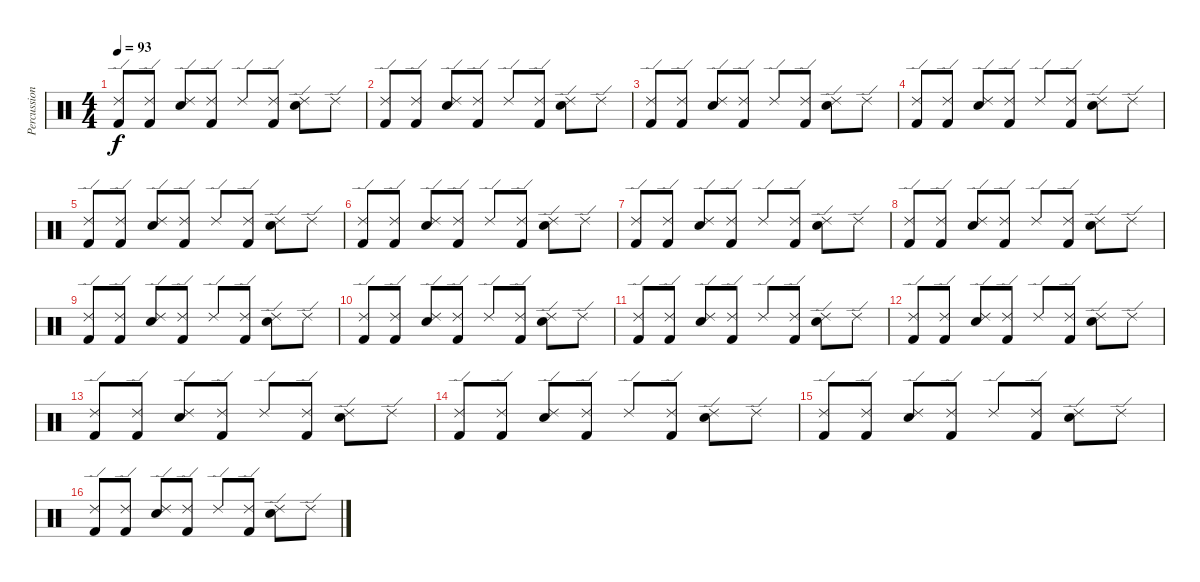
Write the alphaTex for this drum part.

\track ("Percussion" "Percussion") {instrument percussion}
\staff {score}
\articulation defaults
\ts (4 4)
\tempo 93
\clef neutral
\ks c
("Ride (edge) 2" "Kick (hit) 2").8{dy f} ("Ride (edge) 2" "Kick (hit) 2").8 ("Ride (edge) 2" "Electric Snare (hit)").8 ("Ride (edge) 2" "Kick (hit) 2").8 "Ride (edge) 2".8 ("Ride (edge) 2" "Kick (hit) 2").8 ("Ride (edge) 2" "Electric Snare (hit)").8 "Ride (edge) 2".8 |
("Ride (edge) 2" "Kick (hit) 2").8 ("Ride (edge) 2" "Kick (hit) 2").8 ("Ride (edge) 2" "Electric Snare (hit)").8 ("Ride (edge) 2" "Kick (hit) 2").8 "Ride (edge) 2".8 ("Ride (edge) 2" "Kick (hit) 2").8 ("Ride (edge) 2" "Electric Snare (hit)").8 "Ride (edge) 2".8 |
("Ride (edge) 2" "Kick (hit) 2").8 ("Ride (edge) 2" "Kick (hit) 2").8 ("Ride (edge) 2" "Electric Snare (hit)").8 ("Ride (edge) 2" "Kick (hit) 2").8 "Ride (edge) 2".8 ("Ride (edge) 2" "Kick (hit) 2").8 ("Ride (edge) 2" "Electric Snare (hit)").8 "Ride (edge) 2".8 |
("Ride (edge) 2" "Kick (hit) 2").8 ("Ride (edge) 2" "Kick (hit) 2").8 ("Ride (edge) 2" "Electric Snare (hit)").8 ("Ride (edge) 2" "Kick (hit) 2").8 "Ride (edge) 2".8 ("Ride (edge) 2" "Kick (hit) 2").8 ("Ride (edge) 2" "Electric Snare (hit)").8 "Ride (edge) 2".8 |
("Ride (edge) 2" "Kick (hit) 2").8 ("Ride (edge) 2" "Kick (hit) 2").8 ("Ride (edge) 2" "Electric Snare (hit)").8 ("Ride (edge) 2" "Kick (hit) 2").8 "Ride (edge) 2".8 ("Ride (edge) 2" "Kick (hit) 2").8 ("Ride (edge) 2" "Electric Snare (hit)").8 "Ride (edge) 2".8 |
("Ride (edge) 2" "Kick (hit) 2").8 ("Ride (edge) 2" "Kick (hit) 2").8 ("Ride (edge) 2" "Electric Snare (hit)").8 ("Ride (edge) 2" "Kick (hit) 2").8 "Ride (edge) 2".8 ("Ride (edge) 2" "Kick (hit) 2").8 ("Ride (edge) 2" "Electric Snare (hit)").8 "Ride (edge) 2".8 |
("Ride (edge) 2" "Kick (hit) 2").8 ("Ride (edge) 2" "Kick (hit) 2").8 ("Ride (edge) 2" "Electric Snare (hit)").8 ("Ride (edge) 2" "Kick (hit) 2").8 "Ride (edge) 2".8 ("Ride (edge) 2" "Kick (hit) 2").8 ("Ride (edge) 2" "Electric Snare (hit)").8 "Ride (edge) 2".8 |
("Ride (edge) 2" "Kick (hit) 2").8 ("Ride (edge) 2" "Kick (hit) 2").8 ("Ride (edge) 2" "Electric Snare (hit)").8 ("Ride (edge) 2" "Kick (hit) 2").8 "Ride (edge) 2".8 ("Ride (edge) 2" "Kick (hit) 2").8 ("Ride (edge) 2" "Electric Snare (hit)").8 "Ride (edge) 2".8 |
("Ride (edge) 2" "Kick (hit) 2").8 ("Ride (edge) 2" "Kick (hit) 2").8 ("Ride (edge) 2" "Electric Snare (hit)").8 ("Ride (edge) 2" "Kick (hit) 2").8 "Ride (edge) 2".8 ("Ride (edge) 2" "Kick (hit) 2").8 ("Ride (edge) 2" "Electric Snare (hit)").8 "Ride (edge) 2".8 |
("Ride (edge) 2" "Kick (hit) 2").8 ("Ride (edge) 2" "Kick (hit) 2").8 ("Ride (edge) 2" "Electric Snare (hit)").8 ("Ride (edge) 2" "Kick (hit) 2").8 "Ride (edge) 2".8 ("Ride (edge) 2" "Kick (hit) 2").8 ("Ride (edge) 2" "Electric Snare (hit)").8 "Ride (edge) 2".8 |
("Ride (edge) 2" "Kick (hit) 2").8 ("Ride (edge) 2" "Kick (hit) 2").8 ("Ride (edge) 2" "Electric Snare (hit)").8 ("Ride (edge) 2" "Kick (hit) 2").8 "Ride (edge) 2".8 ("Ride (edge) 2" "Kick (hit) 2").8 ("Ride (edge) 2" "Electric Snare (hit)").8 "Ride (edge) 2".8 |
("Ride (edge) 2" "Kick (hit) 2").8 ("Ride (edge) 2" "Kick (hit) 2").8 ("Ride (edge) 2" "Electric Snare (hit)").8 ("Ride (edge) 2" "Kick (hit) 2").8 "Ride (edge) 2".8 ("Ride (edge) 2" "Kick (hit) 2").8 ("Ride (edge) 2" "Electric Snare (hit)").8 "Ride (edge) 2".8 |
("Ride (edge) 2" "Kick (hit) 2").8 ("Ride (edge) 2" "Kick (hit) 2").8 ("Ride (edge) 2" "Electric Snare (hit)").8 ("Ride (edge) 2" "Kick (hit) 2").8 "Ride (edge) 2".8 ("Ride (edge) 2" "Kick (hit) 2").8 ("Ride (edge) 2" "Electric Snare (hit)").8 "Ride (edge) 2".8 |
("Ride (edge) 2" "Kick (hit) 2").8 ("Ride (edge) 2" "Kick (hit) 2").8 ("Ride (edge) 2" "Electric Snare (hit)").8 ("Ride (edge) 2" "Kick (hit) 2").8 "Ride (edge) 2".8 ("Ride (edge) 2" "Kick (hit) 2").8 ("Ride (edge) 2" "Electric Snare (hit)").8 "Ride (edge) 2".8 |
("Ride (edge) 2" "Kick (hit) 2").8 ("Ride (edge) 2" "Kick (hit) 2").8 ("Ride (edge) 2" "Electric Snare (hit)").8 ("Ride (edge) 2" "Kick (hit) 2").8 "Ride (edge) 2".8 ("Ride (edge) 2" "Kick (hit) 2").8 ("Ride (edge) 2" "Electric Snare (hit)").8 "Ride (edge) 2".8 |
("Ride (edge) 2" "Kick (hit) 2").8 ("Ride (edge) 2" "Kick (hit) 2").8 ("Ride (edge) 2" "Electric Snare (hit)").8 ("Ride (edge) 2" "Kick (hit) 2").8 "Ride (edge) 2".8 ("Ride (edge) 2" "Kick (hit) 2").8 ("Ride (edge) 2" "Electric Snare (hit)").8 "Ride (edge) 2".8
